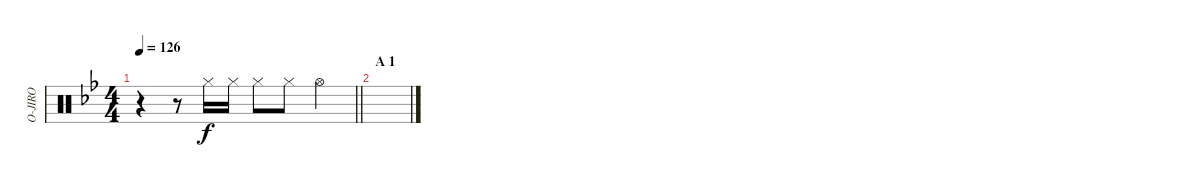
\track ("O-JIRO" "O-JIRO") {instrument percussion}
\staff {score}
\articulation defaults
\ts (4 4)
\tempo 126
\clef neutral
\barLineRight lightlight
\ks bb
r.4{dy f} r.8 "Hi-Hat (closed)".16 "Hi-Hat (closed)".16 "Hi-Hat (closed)".8 "Hi-Hat (closed)".8 "Hi-Hat (open)".4 |
\section ("" "A 1")
